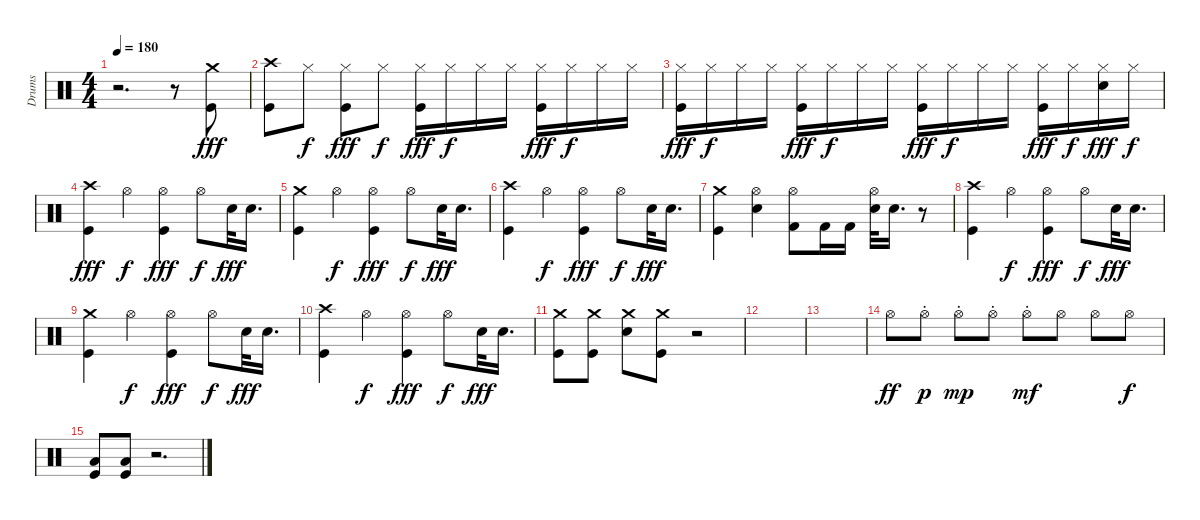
\track ("Drums" "Drums") {instrument percussion}
\staff {score}
\articulation defaults
\ts (4 4)
\tempo 180
\clef neutral
\ks c
r.2{d dy fff} r.8 ("Crash medium (hit)" "Kick (hit)").8 |
("Crash high (hit)" "Kick (hit)").8 "Hi-Hat (closed)".8{dy f} ("Hi-Hat (closed)" "Kick (hit)").8{dy fff} "Hi-Hat (closed)".8{dy f} ("Hi-Hat (closed)" "Kick (hit)").16{dy fff} "Hi-Hat (closed)".16{dy f} "Hi-Hat (closed)".16 "Hi-Hat (closed)".16 ("Hi-Hat (closed)" "Kick (hit)").16{dy fff} "Hi-Hat (closed)".16{dy f} "Hi-Hat (closed)".16 "Hi-Hat (closed)".16 |
("Hi-Hat (closed)" "Kick (hit)").16{dy fff} "Hi-Hat (closed)".16{dy f} "Hi-Hat (closed)".16 "Hi-Hat (closed)".16 ("Hi-Hat (closed)" "Kick (hit)").16{dy fff} "Hi-Hat (closed)".16{dy f} "Hi-Hat (closed)".16 "Hi-Hat (closed)".16 ("Hi-Hat (closed)" "Kick (hit)").16{dy fff} "Hi-Hat (closed)".16{dy f} "Hi-Hat (closed)".16 "Hi-Hat (closed)".16 ("Hi-Hat (closed)" "Kick (hit)").16{dy fff} "Hi-Hat (closed)".16{dy f} ("Hi-Hat (closed)" "Snare (hit) 2").16{dy fff} "Hi-Hat (closed)".16{dy f} |
("Crash high (hit)" "Kick (hit)").4{dy fff} "Hi-Hat (open)".4{dy f} ("Hi-Hat (open)" "Kick (hit)").4{dy fff} "Hi-Hat (open)".8{dy f} "Snare (hit) 2".32{dy fff} "Snare (hit) 2".16{d} |
("Crash medium (hit)" "Kick (hit)").4 "Hi-Hat (open)".4{dy f} ("Hi-Hat (open)" "Kick (hit)").4{dy fff} "Hi-Hat (open)".8{dy f} "Snare (hit) 2".32{dy fff} "Snare (hit) 2".16{d} |
("Crash high (hit)" "Kick (hit)").4 "Hi-Hat (open)".4{dy f} ("Hi-Hat (open)" "Kick (hit)").4{dy fff} "Hi-Hat (open)".8{dy f} "Snare (hit) 2".32{dy fff} "Snare (hit) 2".16{d} |
("Crash medium (hit)" "Kick (hit)").4 ("Hi-Hat (open)" "Snare (hit) 2").4 ("Hi-Hat (open)" "Kick (hit) 2").8 "Kick (hit) 2".16 "Kick (hit) 2".16 ("Hi-Hat (open)" "Snare (hit) 2").32 "Snare (hit) 2".16{d} r.8 |
("Crash high (hit)" "Kick (hit)").4 "Hi-Hat (open)".4{dy f} ("Hi-Hat (open)" "Kick (hit)").4{dy fff} "Hi-Hat (open)".8{dy f} "Snare (hit) 2".32{dy fff} "Snare (hit) 2".16{d} |
("Crash medium (hit)" "Kick (hit)").4 "Hi-Hat (open)".4{dy f} ("Hi-Hat (open)" "Kick (hit)").4{dy fff} "Hi-Hat (open)".8{dy f} "Snare (hit) 2".32{dy fff} "Snare (hit) 2".16{d} |
("Crash high (hit)" "Kick (hit)").4 "Hi-Hat (open)".4{dy f} ("Hi-Hat (open)" "Kick (hit)").4{dy fff} "Hi-Hat (open)".8{dy f} "Snare (hit) 2".32{dy fff} "Snare (hit) 2".16{d} |
("Crash medium (hit)" "Kick (hit)").8 ("Crash medium (hit)" "Kick (hit)").8 ("Crash medium (hit)" "Snare (hit) 2").8 ("Crash medium (hit)" "Kick (hit)").8 r.2 |
|
|
"Hi-Hat (open)".8{dy ff} "Hi-Hat (open)"{st}.8{dy p} "Hi-Hat (open)"{st}.8{dy mp} "Hi-Hat (open)"{st}.8 "Hi-Hat (open)"{st}.8{dy mf} "Hi-Hat (open)".8 "Hi-Hat (open)".8 "Hi-Hat (open)".8{dy f} |
("Low Tom (hit)" "Kick (hit)").8 ("Low Tom (hit)" "Kick (hit)").8 r.2{d}
